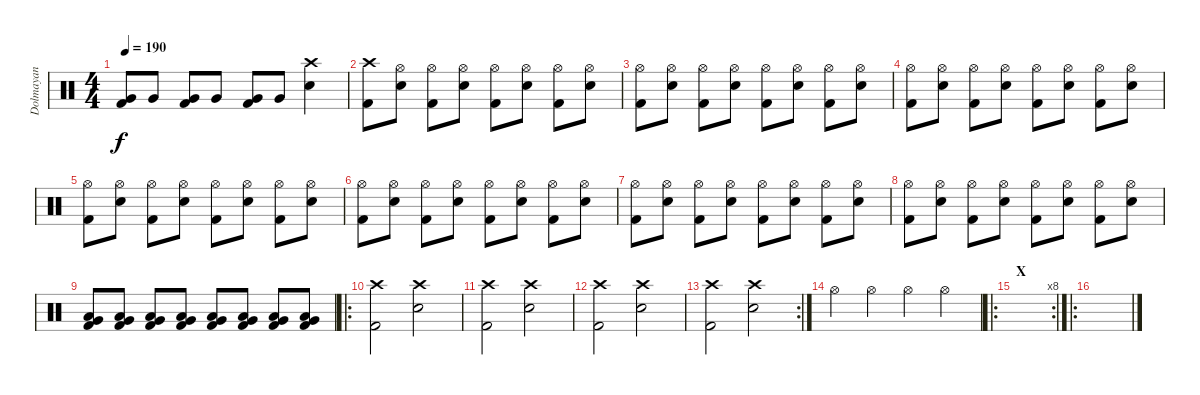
\track ("Dolmayan" "Dolmayan") {instrument percussion}
\staff {score}
\articulation defaults
\ts (4 4)
\tempo 190
\clef neutral
\ks c
("Very Low Tom (hit)" "Kick (hit) 2").8{dy f} "Very Low Tom (hit)".8 ("Very Low Tom (hit)" "Kick (hit) 2").8 "Very Low Tom (hit)".8 ("Very Low Tom (hit)" "Kick (hit) 2").8 "Very Low Tom (hit)".8 ("Crash high (hit)" "Electric Snare (hit)").4 |
("Crash high (hit)" "Kick (hit) 2").8 ("Hi-Hat (open)" "Electric Snare (hit)").8 ("Hi-Hat (open)" "Kick (hit) 2").8 ("Hi-Hat (open)" "Electric Snare (hit)").8 ("Hi-Hat (open)" "Kick (hit) 2").8 ("Hi-Hat (open)" "Electric Snare (hit)").8 ("Hi-Hat (open)" "Kick (hit) 2").8 ("Hi-Hat (open)" "Electric Snare (hit)").8 |
("Hi-Hat (open)" "Kick (hit) 2").8 ("Hi-Hat (open)" "Electric Snare (hit)").8 ("Hi-Hat (open)" "Kick (hit) 2").8 ("Hi-Hat (open)" "Electric Snare (hit)").8 ("Hi-Hat (open)" "Kick (hit) 2").8 ("Hi-Hat (open)" "Electric Snare (hit)").8 ("Hi-Hat (open)" "Kick (hit) 2").8 ("Hi-Hat (open)" "Electric Snare (hit)").8 |
("Hi-Hat (open)" "Kick (hit) 2").8 ("Hi-Hat (open)" "Electric Snare (hit)").8 ("Hi-Hat (open)" "Kick (hit) 2").8 ("Hi-Hat (open)" "Electric Snare (hit)").8 ("Hi-Hat (open)" "Kick (hit) 2").8 ("Hi-Hat (open)" "Electric Snare (hit)").8 ("Hi-Hat (open)" "Kick (hit) 2").8 ("Hi-Hat (open)" "Electric Snare (hit)").8 |
("Hi-Hat (open)" "Kick (hit) 2").8 ("Hi-Hat (open)" "Electric Snare (hit)").8 ("Hi-Hat (open)" "Kick (hit) 2").8 ("Hi-Hat (open)" "Electric Snare (hit)").8 ("Hi-Hat (open)" "Kick (hit) 2").8 ("Hi-Hat (open)" "Electric Snare (hit)").8 ("Hi-Hat (open)" "Kick (hit) 2").8 ("Hi-Hat (open)" "Electric Snare (hit)").8 |
("Hi-Hat (open)" "Kick (hit) 2").8 ("Hi-Hat (open)" "Electric Snare (hit)").8 ("Hi-Hat (open)" "Kick (hit) 2").8 ("Hi-Hat (open)" "Electric Snare (hit)").8 ("Hi-Hat (open)" "Kick (hit) 2").8 ("Hi-Hat (open)" "Electric Snare (hit)").8 ("Hi-Hat (open)" "Kick (hit) 2").8 ("Hi-Hat (open)" "Electric Snare (hit)").8 |
("Hi-Hat (open)" "Kick (hit) 2").8 ("Hi-Hat (open)" "Electric Snare (hit)").8 ("Hi-Hat (open)" "Kick (hit) 2").8 ("Hi-Hat (open)" "Electric Snare (hit)").8 ("Hi-Hat (open)" "Kick (hit) 2").8 ("Hi-Hat (open)" "Electric Snare (hit)").8 ("Hi-Hat (open)" "Kick (hit) 2").8 ("Hi-Hat (open)" "Electric Snare (hit)").8 |
("Hi-Hat (open)" "Kick (hit) 2").8 ("Hi-Hat (open)" "Electric Snare (hit)").8 ("Hi-Hat (open)" "Kick (hit) 2").8 ("Hi-Hat (open)" "Electric Snare (hit)").8 ("Hi-Hat (open)" "Kick (hit) 2").8 ("Hi-Hat (open)" "Electric Snare (hit)").8 ("Hi-Hat (open)" "Kick (hit) 2").8 ("Hi-Hat (open)" "Electric Snare (hit)").8 |
("Very Low Tom (hit)" "Low Tom (hit)" "Kick (hit) 2").8 ("Very Low Tom (hit)" "Low Tom (hit)" "Kick (hit) 2").8 ("Very Low Tom (hit)" "Low Tom (hit)" "Kick (hit) 2").8 ("Very Low Tom (hit)" "Low Tom (hit)" "Kick (hit) 2").8 ("Very Low Tom (hit)" "Low Tom (hit)" "Kick (hit) 2").8 ("Very Low Tom (hit)" "Low Tom (hit)" "Kick (hit) 2").8 ("Very Low Tom (hit)" "Low Tom (hit)" "Kick (hit) 2").8 ("Very Low Tom (hit)" "Low Tom (hit)" "Kick (hit) 2").8 |
\ro
("Crash high (hit)" "Kick (hit) 2").2 ("Crash high (hit)" "Electric Snare (hit)").2 |
("Crash high (hit)" "Kick (hit) 2").2 ("Crash high (hit)" "Electric Snare (hit)").2 |
("Crash high (hit)" "Kick (hit) 2").2 ("Crash high (hit)" "Electric Snare (hit)").2 |
\rc 2
("Crash high (hit)" "Kick (hit) 2").2 ("Crash high (hit)" "Electric Snare (hit)").2 |
"Hi-Hat (open)".4 "Hi-Hat (open)".4 "Hi-Hat (open)".4 "Hi-Hat (open)".4 |
\ro
\rc 8
\section ("" "X")
|
\ro
